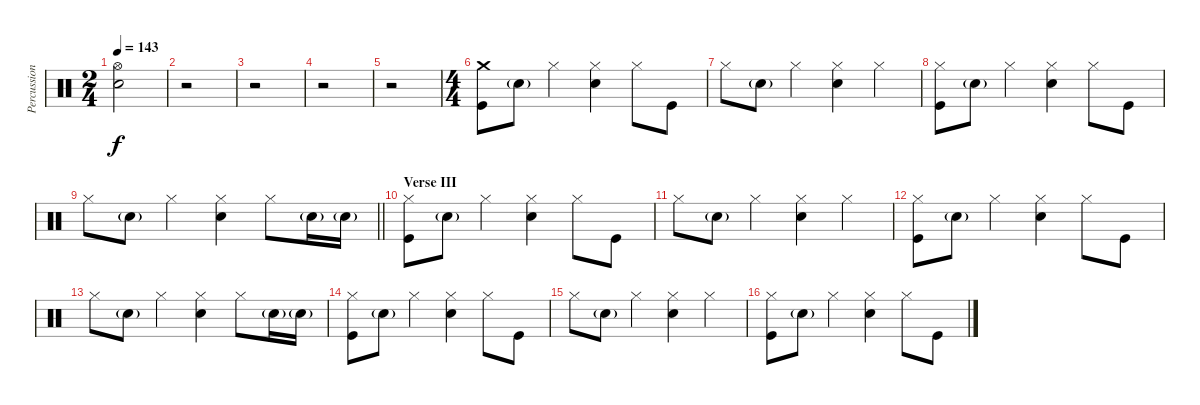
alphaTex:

\track ("Percussion" "Percussion") {instrument percussion}
\staff {score}
\articulation defaults
\ts (2 4)
\tempo 143
\clef neutral
\ks c
("Hi-Hat (open)" "Electric Snare (hit)").2{dy f} |
r.2 |
r.2 |
r.2 |
r.2 |
\ts (4 4)
("Crash medium (hit)" "Kick (hit)").8 "Electric Snare (hit)"{g}.8 "Hi-Hat (closed)".4 ("Hi-Hat (closed)" "Electric Snare (hit)").4 "Hi-Hat (closed)".8 "Kick (hit)".8 |
"Hi-Hat (closed)".8 "Electric Snare (hit)"{g}.8 "Hi-Hat (closed)".4 ("Hi-Hat (closed)" "Electric Snare (hit)").4 "Hi-Hat (closed)".4 |
("Hi-Hat (closed)" "Kick (hit)").8 "Electric Snare (hit)"{g}.8 "Hi-Hat (closed)".4 ("Hi-Hat (closed)" "Electric Snare (hit)").4 "Hi-Hat (closed)".8 "Kick (hit)".8 |
\barLineRight lightlight "Hi-Hat (closed)".8 "Electric Snare (hit)"{g}.8 "Hi-Hat (closed)".4
("Hi-Hat (closed)" "Electric Snare (hit)").4 "Hi-Hat (closed)".8 "Electric Snare (hit)"{g}.16 "Electric Snare (hit)"{g}.16 |
\section ("" "Verse III")
("Hi-Hat (closed)" "Kick (hit)").8 "Electric Snare (hit)"{g}.8 "Hi-Hat (closed)".4 ("Hi-Hat (closed)" "Electric Snare (hit)").4 "Hi-Hat (closed)".8 "Kick (hit)".8 |
"Hi-Hat (closed)".8 "Electric Snare (hit)"{g}.8 "Hi-Hat (closed)".4 ("Hi-Hat (closed)" "Electric Snare (hit)").4 "Hi-Hat (closed)".4 |
("Hi-Hat (closed)" "Kick (hit)").8 "Electric Snare (hit)"{g}.8 "Hi-Hat (closed)".4 ("Hi-Hat (closed)" "Electric Snare (hit)").4 "Hi-Hat (closed)".8 "Kick (hit)".8 |
"Hi-Hat (closed)".8 "Electric Snare (hit)"{g}.8 "Hi-Hat (closed)".4 ("Hi-Hat (closed)" "Electric Snare (hit)").4 "Hi-Hat (closed)".8 "Electric Snare (hit)"{g}.16 "Electric Snare (hit)"{g}.16 |
("Hi-Hat (closed)" "Kick (hit)").8 "Electric Snare (hit)"{g}.8 "Hi-Hat (closed)".4 ("Hi-Hat (closed)" "Electric Snare (hit)").4 "Hi-Hat (closed)".8 "Kick (hit)".8 |
"Hi-Hat (closed)".8 "Electric Snare (hit)"{g}.8 "Hi-Hat (closed)".4 ("Hi-Hat (closed)" "Electric Snare (hit)").4 "Hi-Hat (closed)".4 |
("Hi-Hat (closed)" "Kick (hit)").8 "Electric Snare (hit)"{g}.8 "Hi-Hat (closed)".4 ("Hi-Hat (closed)" "Electric Snare (hit)").4 "Hi-Hat (closed)".8 "Kick (hit)".8
